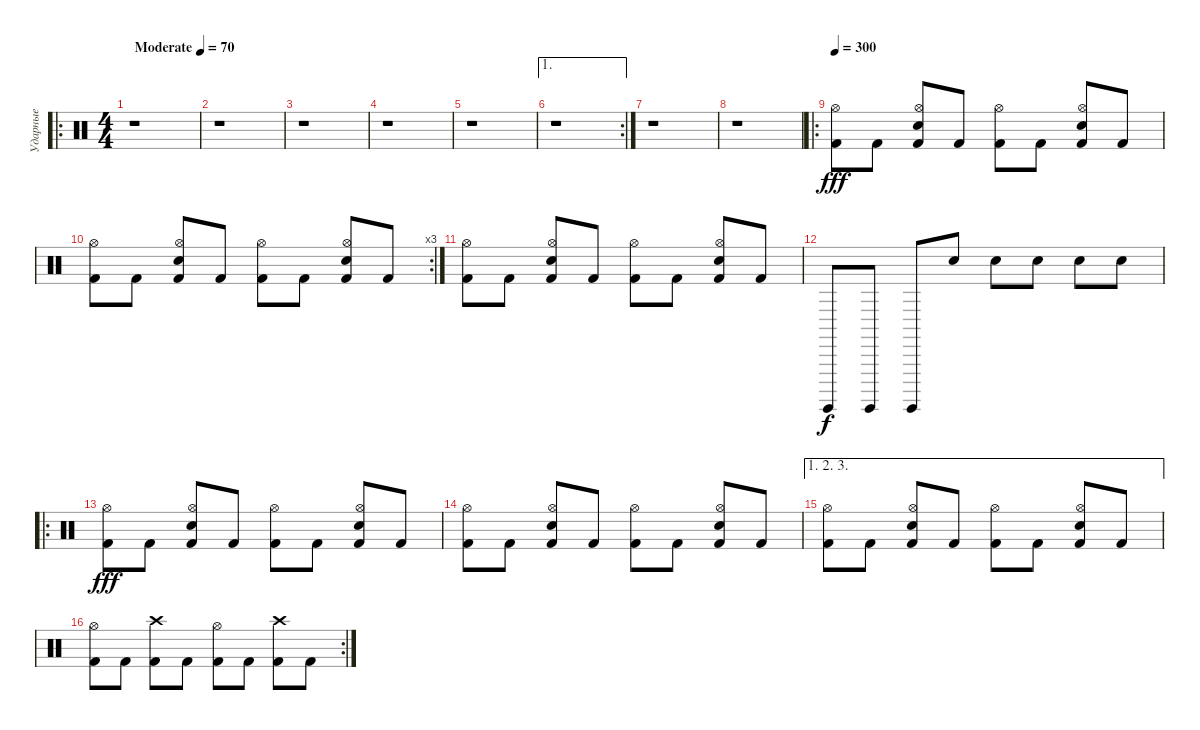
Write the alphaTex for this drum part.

\track ("Ударные" "Ударные") {instrument percussion}
\staff {score}
\articulation defaults
\ro
\ts (4 4)
\tempo (70 "Moderate")
\clef neutral
\ks c
r.1{dy fff} |
r.1 |
r.1 |
r.1 |
r.1 |
\ae 1
\rc 2
r.1 |
r.1 |
r.1 |
\ro
\tempo 300
("Kick (hit) 2" "Hi-Hat (open)").8 "Kick (hit) 2".8 ("Kick (hit) 2" "Snare (hit) 2" "Hi-Hat (open)").8 "Kick (hit) 2".8 ("Kick (hit) 2" "Hi-Hat (open)").8 "Kick (hit) 2".8 ("Kick (hit) 2" "Snare (hit) 2" "Hi-Hat (open)").8 "Kick (hit) 2".8 |
\rc 3
("Kick (hit) 2" "Hi-Hat (open)").8 "Kick (hit) 2".8 ("Kick (hit) 2" "Snare (hit) 2" "Hi-Hat (open)").8 "Kick (hit) 2".8 ("Kick (hit) 2" "Hi-Hat (open)").8 "Kick (hit) 2".8 ("Kick (hit) 2" "Snare (hit) 2" "Hi-Hat (open)").8 "Kick (hit) 2".8 |
("Kick (hit) 2" "Hi-Hat (open)").8 "Kick (hit) 2".8 ("Kick (hit) 2" "Snare (hit) 2" "Hi-Hat (open)").8 "Kick (hit) 2".8 ("Kick (hit) 2" "Hi-Hat (open)").8 "Kick (hit) 2".8 ("Kick (hit) 2" "Snare (hit) 2" "Hi-Hat (open)").8 "Kick (hit) 2".8 |
"Surdo (hit)".8{dy f} "Surdo (hit)".8 "Surdo (hit)".8 "Snare (hit) 2".8 "Snare (hit) 2".8 "Snare (hit) 2".8 "Snare (hit) 2".8 "Snare (hit) 2".8 |
\ro
("Kick (hit) 2" "Hi-Hat (open)").8{dy fff} "Kick (hit) 2".8 ("Kick (hit) 2" "Snare (hit) 2" "Hi-Hat (open)").8 "Kick (hit) 2".8 ("Kick (hit) 2" "Hi-Hat (open)").8 "Kick (hit) 2".8 ("Kick (hit) 2" "Snare (hit) 2" "Hi-Hat (open)").8 "Kick (hit) 2".8 |
("Kick (hit) 2" "Hi-Hat (open)").8 "Kick (hit) 2".8 ("Kick (hit) 2" "Snare (hit) 2" "Hi-Hat (open)").8 "Kick (hit) 2".8 ("Kick (hit) 2" "Hi-Hat (open)").8 "Kick (hit) 2".8 ("Kick (hit) 2" "Snare (hit) 2" "Hi-Hat (open)").8 "Kick (hit) 2".8 |
\ae (1 2 3)
("Kick (hit) 2" "Hi-Hat (open)").8 "Kick (hit) 2".8 ("Kick (hit) 2" "Snare (hit) 2" "Hi-Hat (open)").8 "Kick (hit) 2".8 ("Kick (hit) 2" "Hi-Hat (open)").8 "Kick (hit) 2".8 ("Kick (hit) 2" "Snare (hit) 2" "Hi-Hat (open)").8 "Kick (hit) 2".8 |
\rc 2
("Kick (hit) 2" "Hi-Hat (open)").8 "Kick (hit) 2".8 ("Kick (hit) 2" "Crash high (hit)").8 "Kick (hit) 2".8 ("Kick (hit) 2" "Hi-Hat (open)").8 "Kick (hit) 2".8 ("Kick (hit) 2" "Crash high (hit)").8 "Kick (hit) 2".8
